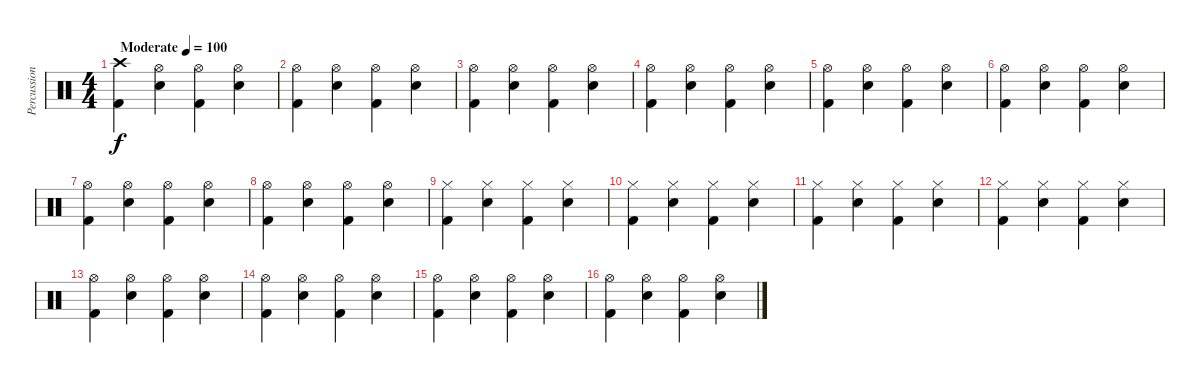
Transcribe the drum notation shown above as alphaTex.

\track ("Percussion" "Percussion") {instrument percussion}
\staff {score}
\articulation defaults
\ts (4 4)
\tempo (100 "Moderate")
\clef neutral
\ks c
("Crash high (hit)" "Kick (hit) 2").4{dy f} ("Hi-Hat (open)" "Electric Snare (hit)").4 ("Hi-Hat (open)" "Kick (hit) 2").4 ("Hi-Hat (open)" "Electric Snare (hit)").4 |
("Hi-Hat (open)" "Kick (hit) 2").4 ("Hi-Hat (open)" "Electric Snare (hit)").4 ("Hi-Hat (open)" "Kick (hit) 2").4 ("Hi-Hat (open)" "Electric Snare (hit)").4 |
("Hi-Hat (open)" "Kick (hit) 2").4 ("Hi-Hat (open)" "Electric Snare (hit)").4 ("Hi-Hat (open)" "Kick (hit) 2").4 ("Hi-Hat (open)" "Electric Snare (hit)").4 |
("Hi-Hat (open)" "Kick (hit) 2").4 ("Hi-Hat (open)" "Electric Snare (hit)").4 ("Hi-Hat (open)" "Kick (hit) 2").4 ("Hi-Hat (open)" "Electric Snare (hit)").4 |
("Hi-Hat (open)" "Kick (hit) 2").4 ("Hi-Hat (open)" "Electric Snare (hit)").4 ("Hi-Hat (open)" "Kick (hit) 2").4 ("Hi-Hat (open)" "Electric Snare (hit)").4 |
("Hi-Hat (open)" "Kick (hit) 2").4 ("Hi-Hat (open)" "Electric Snare (hit)").4 ("Hi-Hat (open)" "Kick (hit) 2").4 ("Hi-Hat (open)" "Electric Snare (hit)").4 |
("Hi-Hat (open)" "Kick (hit) 2").4 ("Hi-Hat (open)" "Electric Snare (hit)").4 ("Hi-Hat (open)" "Kick (hit) 2").4 ("Hi-Hat (open)" "Electric Snare (hit)").4 |
("Hi-Hat (open)" "Kick (hit) 2").4 ("Hi-Hat (open)" "Electric Snare (hit)").4 ("Hi-Hat (open)" "Kick (hit) 2").4 ("Hi-Hat (open)" "Electric Snare (hit)").4 |
("Hi-Hat (closed)" "Kick (hit) 2").4 ("Hi-Hat (closed)" "Electric Snare (hit)").4 ("Hi-Hat (closed)" "Kick (hit) 2").4 ("Hi-Hat (closed)" "Electric Snare (hit)").4 |
("Hi-Hat (closed)" "Kick (hit) 2").4 ("Hi-Hat (closed)" "Electric Snare (hit)").4 ("Hi-Hat (closed)" "Kick (hit) 2").4 ("Hi-Hat (closed)" "Electric Snare (hit)").4 |
("Hi-Hat (closed)" "Kick (hit) 2").4 ("Hi-Hat (closed)" "Electric Snare (hit)").4 ("Hi-Hat (closed)" "Kick (hit) 2").4 ("Hi-Hat (closed)" "Electric Snare (hit)").4 |
("Hi-Hat (closed)" "Kick (hit) 2").4 ("Hi-Hat (closed)" "Electric Snare (hit)").4 ("Hi-Hat (closed)" "Kick (hit) 2").4 ("Hi-Hat (closed)" "Electric Snare (hit)").4 |
("Hi-Hat (open)" "Kick (hit) 2").4 ("Hi-Hat (open)" "Electric Snare (hit)").4 ("Hi-Hat (open)" "Kick (hit) 2").4 ("Hi-Hat (open)" "Electric Snare (hit)").4 |
("Hi-Hat (open)" "Kick (hit) 2").4 ("Hi-Hat (open)" "Electric Snare (hit)").4 ("Hi-Hat (open)" "Kick (hit) 2").4 ("Hi-Hat (open)" "Electric Snare (hit)").4 |
("Hi-Hat (open)" "Kick (hit) 2").4 ("Hi-Hat (open)" "Electric Snare (hit)").4 ("Hi-Hat (open)" "Kick (hit) 2").4 ("Hi-Hat (open)" "Electric Snare (hit)").4 |
("Hi-Hat (open)" "Kick (hit) 2").4 ("Hi-Hat (open)" "Electric Snare (hit)").4 ("Hi-Hat (open)" "Kick (hit) 2").4 ("Hi-Hat (open)" "Electric Snare (hit)").4
